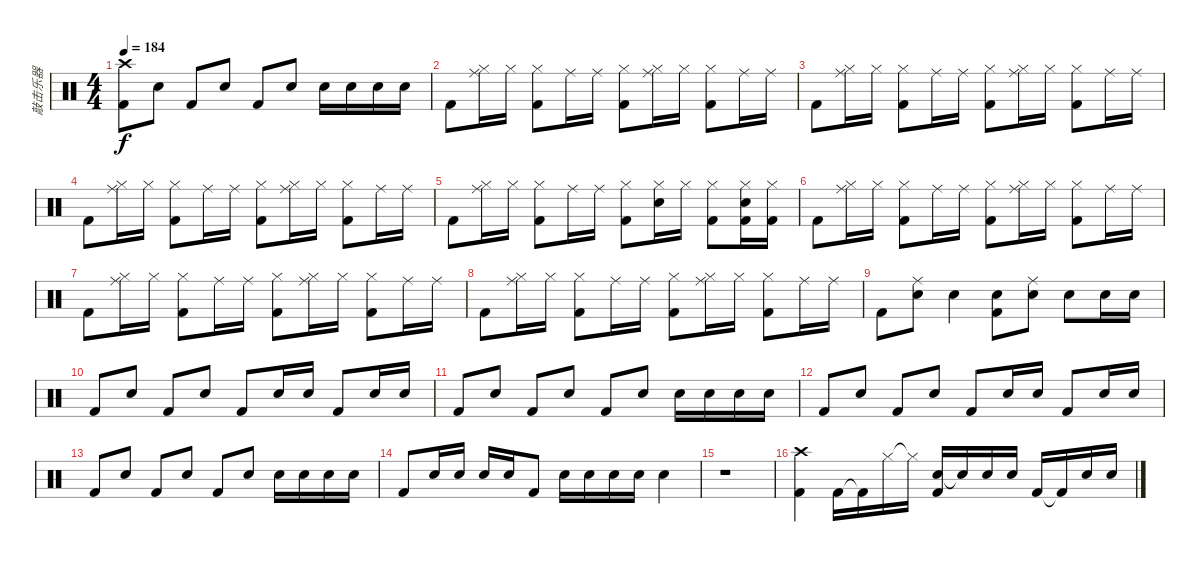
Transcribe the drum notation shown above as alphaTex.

\track ("敲击乐器" "敲击乐器") {instrument percussion}
\staff {score}
\articulation defaults
\ts (4 4)
\tempo 184
\clef neutral
\ks c
("Crash high (hit)" "Kick (hit) 2").8{dy f} "Snare (hit) 2".8 "Kick (hit) 2".8 "Snare (hit) 2".8 "Kick (hit) 2".8 "Snare (hit) 2".8 "Snare (hit) 2".16 "Snare (hit) 2".16 "Snare (hit) 2".16 "Snare (hit) 2".16 |
"Kick (hit) 2".8 ("Ride (middle)" "Hi-Hat (closed)").16 "Hi-Hat (closed)".16 ("Hi-Hat (closed)" "Kick (hit) 2").8 "Ride (middle)".16 "Ride (middle)".16 ("Hi-Hat (closed)" "Kick (hit) 2").8 ("Ride (middle)" "Hi-Hat (closed)").16 "Hi-Hat (closed)".16 ("Hi-Hat (closed)" "Kick (hit) 2").8 "Ride (middle)".16 "Ride (middle)".16 |
"Kick (hit) 2".8 ("Ride (middle)" "Hi-Hat (closed)").16 "Hi-Hat (closed)".16 ("Hi-Hat (closed)" "Kick (hit) 2").8 "Ride (middle)".16 "Ride (middle)".16 ("Hi-Hat (closed)" "Kick (hit) 2").8 ("Ride (middle)" "Hi-Hat (closed)").16 "Hi-Hat (closed)".16 ("Hi-Hat (closed)" "Kick (hit) 2").8 "Ride (middle)".16 "Ride (middle)".16 |
"Kick (hit) 2".8 ("Ride (middle)" "Hi-Hat (closed)").16 "Hi-Hat (closed)".16 ("Hi-Hat (closed)" "Kick (hit) 2").8 "Ride (middle)".16 "Ride (middle)".16 ("Hi-Hat (closed)" "Kick (hit) 2").8 ("Ride (middle)" "Hi-Hat (closed)").16 "Hi-Hat (closed)".16 ("Hi-Hat (closed)" "Kick (hit) 2").8 "Ride (middle)".16 "Ride (middle)".16 |
"Kick (hit) 2".8 ("Ride (middle)" "Hi-Hat (closed)").16 "Hi-Hat (closed)".16 ("Hi-Hat (closed)" "Kick (hit) 2").8 "Ride (middle)".16 "Ride (middle)".16 ("Hi-Hat (closed)" "Kick (hit) 2").8 ("Hi-Hat (closed)" "Snare (hit) 2").16 "Hi-Hat (closed)".16 ("Hi-Hat (closed)" "Kick (hit) 2").8 ("Hi-Hat (closed)" "Snare (hit) 2" "Kick (hit) 2").16 ("Hi-Hat (closed)" "Kick (hit) 2").16 |
"Kick (hit) 2".8 ("Ride (middle)" "Hi-Hat (closed)").16 "Hi-Hat (closed)".16 ("Hi-Hat (closed)" "Kick (hit) 2").8 "Ride (middle)".16 "Ride (middle)".16 ("Hi-Hat (closed)" "Kick (hit) 2").8 ("Ride (middle)" "Hi-Hat (closed)").16 "Hi-Hat (closed)".16 ("Hi-Hat (closed)" "Kick (hit) 2").8 "Ride (middle)".16 "Ride (middle)".16 |
"Kick (hit) 2".8 ("Ride (middle)" "Hi-Hat (closed)").16 "Hi-Hat (closed)".16 ("Hi-Hat (closed)" "Kick (hit) 2").8 "Ride (middle)".16 "Ride (middle)".16 ("Hi-Hat (closed)" "Kick (hit) 2").8 ("Ride (middle)" "Hi-Hat (closed)").16 "Hi-Hat (closed)".16 ("Hi-Hat (closed)" "Kick (hit) 2").8 "Ride (middle)".16 "Ride (middle)".16 |
"Kick (hit) 2".8 ("Ride (middle)" "Hi-Hat (closed)").16 "Hi-Hat (closed)".16 ("Hi-Hat (closed)" "Kick (hit) 2").8 "Ride (middle)".16 "Ride (middle)".16 ("Hi-Hat (closed)" "Kick (hit) 2").8 ("Ride (middle)" "Hi-Hat (closed)").16 "Hi-Hat (closed)".16 ("Hi-Hat (closed)" "Kick (hit) 2").8 "Ride (middle)".16 "Ride (middle)".16 |
"Kick (hit) 2".8 ("Ride (middle)" "Snare (hit) 2").8 "Snare (hit) 2".4 ("Snare (hit) 2" "Kick (hit) 2").8 ("Ride (middle)" "Snare (hit) 2").8 "Snare (hit) 2".8 "Snare (hit) 2".16 "Snare (hit) 2".16 |
"Kick (hit) 2".8 "Snare (hit) 2".8 "Kick (hit) 2".8 "Snare (hit) 2".8 "Kick (hit) 2".8 "Snare (hit) 2".16 "Snare (hit) 2".16 "Kick (hit) 2".8 "Snare (hit) 2".16 "Snare (hit) 2".16 |
"Kick (hit) 2".8 "Snare (hit) 2".8 "Kick (hit) 2".8 "Snare (hit) 2".8 "Kick (hit) 2".8 "Snare (hit) 2".8 "Snare (hit) 2".16 "Snare (hit) 2".16 "Snare (hit) 2".16 "Snare (hit) 2".16 |
"Kick (hit) 2".8 "Snare (hit) 2".8 "Kick (hit) 2".8 "Snare (hit) 2".8 "Kick (hit) 2".8 "Snare (hit) 2".16 "Snare (hit) 2".16 "Kick (hit) 2".8 "Snare (hit) 2".16 "Snare (hit) 2".16 |
"Kick (hit) 2".8 "Snare (hit) 2".8 "Kick (hit) 2".8 "Snare (hit) 2".8 "Kick (hit) 2".8 "Snare (hit) 2".8 "Snare (hit) 2".16 "Snare (hit) 2".16 "Snare (hit) 2".16 "Snare (hit) 2".16 |
"Kick (hit) 2".8 "Snare (hit) 2".16 "Snare (hit) 2".16 "Snare (hit) 2".16 "Snare (hit) 2".16 "Kick (hit) 2".8 "Snare (hit) 2".16 "Snare (hit) 2".16 "Snare (hit) 2".16 "Snare (hit) 2".16 "Snare (hit) 2".4 |
r.1 |
("Crash high (hit)" "Kick (hit) 2").4 "Kick (hit) 2".16 "Kick (hit) 2"{t}.16 "Hi-Hat (closed)".16 "Hi-Hat (closed)"{t}.16 ("Snare (hit) 2" "Kick (hit) 2").16 "Snare (hit) 2"{t}.16 "Snare (hit) 2".16 "Snare (hit) 2".16 "Kick (hit) 2".16 "Kick (hit) 2"{t}.16 "Snare (hit) 2".16 "Snare (hit) 2".16
